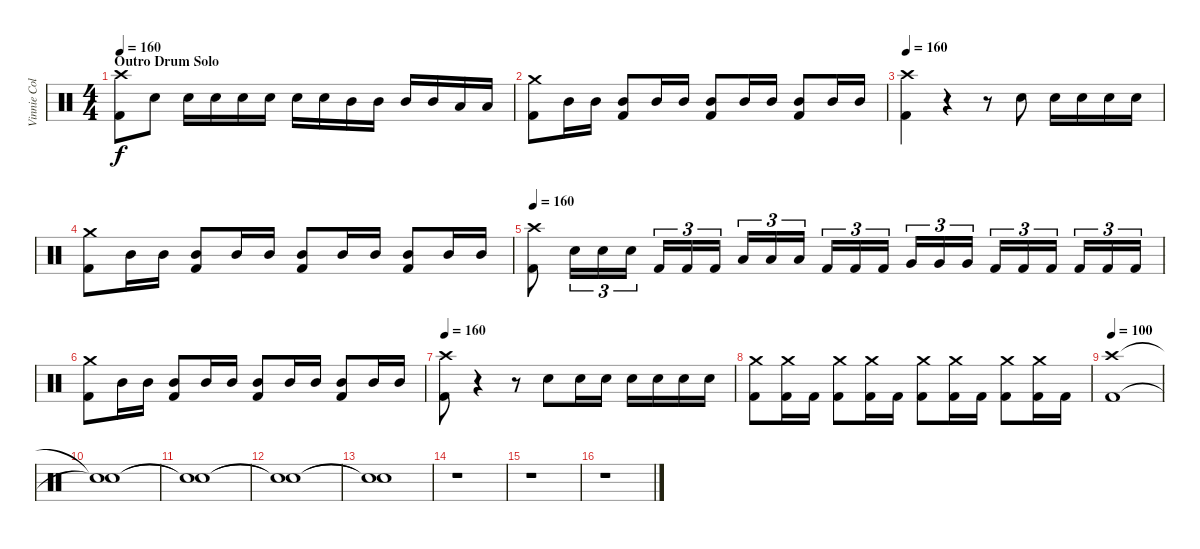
\track ("Vinnie Colaiuta" "Vinnie Col") {instrument percussion}
\staff {score}
\articulation defaults
\ts (4 4)
\section ("" "Outro Drum Solo")
\tempo 160
\clef neutral
\ks c
("Crash high (hit)" "Kick (hit) 2").8{dy f} "Snare (hit) 2"{tr (38 64)}.8 "Snare (hit) 2".16 "Snare (hit) 2".16 "Snare (hit) 2".16 "Snare (hit) 2".16 "Snare (hit) 2".16 "Snare (hit) 2".16 "Mid Tom (hit)".16 "Mid Tom (hit)".16 "Mid Tom (hit)".16 "Mid Tom (hit)".16 "Low Tom (hit)".16 "Low Tom (hit)".16 |
("Crash medium (hit)" "Kick (hit) 2").8 "Mid Tom (hit)".16 "Mid Tom (hit)".16 ("Mid Tom (hit)" "Kick (hit) 2").8 "Mid Tom (hit)".16 "Mid Tom (hit)".16 ("Mid Tom (hit)" "Kick (hit) 2").8 "Mid Tom (hit)".16 "Mid Tom (hit)".16 ("Mid Tom (hit)" "Kick (hit) 2").8 "Mid Tom (hit)".16 "Mid Tom (hit)".16 |
\tempo 160
("Crash high (hit)" "Kick (hit) 2").4 r.4 r.8 "Snare (hit) 2"{tr (38 64)}.8 "Snare (hit) 2".16 "Snare (hit) 2".16 "Snare (hit) 2".16 "Snare (hit) 2".16 |
("Crash medium (hit)" "Kick (hit) 2").8 "Mid Tom (hit)".16 "Mid Tom (hit)".16 ("Mid Tom (hit)" "Kick (hit) 2").8 "Mid Tom (hit)".16 "Mid Tom (hit)".16 ("Mid Tom (hit)" "Kick (hit) 2").8 "Mid Tom (hit)".16 "Mid Tom (hit)".16 ("Mid Tom (hit)" "Kick (hit) 2").8 "Mid Tom (hit)".16 "Mid Tom (hit)".16 |
\tempo 160
("Crash high (hit)" "Kick (hit) 2").8 "Snare (hit) 2".16{tu (3 2)} "Snare (hit) 2".16{tu (3 2)} "Snare (hit) 2".16{tu (3 2)} "Kick (hit) 2".16{tu (3 2)} "Kick (hit) 2".16{tu (3 2)} "Kick (hit) 2".16{tu (3 2)} "Low Tom (hit)".16{tu (3 2)} "Low Tom (hit)".16{tu (3 2)} "Low Tom (hit)".16{tu (3 2)} "Kick (hit) 2".16{tu (3 2)} "Kick (hit) 2".16{tu (3 2)} "Kick (hit) 2".16{tu (3 2)} "Very Low Tom (hit)".16{tu (3 2)} "Very Low Tom (hit)".16{tu (3 2)} "Very Low Tom (hit)".16{tu (3 2)} "Kick (hit) 2".16{tu (3 2)} "Kick (hit) 2".16{tu (3 2)} "Kick (hit) 2".16{tu (3 2)} "Kick (hit) 2".16{tu (3 2)} "Kick (hit) 2".16{tu (3 2)} "Kick (hit) 2".16{tu (3 2)} |
("Crash medium (hit)" "Kick (hit) 2").8 "Mid Tom (hit)".16 "Mid Tom (hit)".16 ("Mid Tom (hit)" "Kick (hit) 2").8 "Mid Tom (hit)".16 "Mid Tom (hit)".16 ("Mid Tom (hit)" "Kick (hit) 2").8 "Mid Tom (hit)".16 "Mid Tom (hit)".16 ("Mid Tom (hit)" "Kick (hit) 2").8 "Mid Tom (hit)".16 "Mid Tom (hit)".16 |
\tempo 160
("Crash high (hit)" "Kick (hit) 2").8 r.4 r.8 "Snare (hit) 2"{tr (38 64)}.8 "Snare (hit) 2".16 "Snare (hit) 2".16 "Snare (hit) 2".16 "Snare (hit) 2".16 "Snare (hit) 2".16 "Snare (hit) 2".16 |
("Crash medium (hit)" "Kick (hit) 2").8 ("Crash medium (hit)" "Kick (hit) 2").16 "Kick (hit) 2".16 ("Crash medium (hit)" "Kick (hit) 2").8 ("Crash medium (hit)" "Kick (hit) 2").16 "Kick (hit) 2".16 ("Crash medium (hit)" "Kick (hit) 2").8 ("Crash medium (hit)" "Kick (hit) 2").16 "Kick (hit) 2".16 ("Crash medium (hit)" "Kick (hit) 2").8 ("Crash medium (hit)" "Kick (hit) 2").16 "Kick (hit) 2".16 |
\tempo 100
("Crash high (hit)" "Kick (hit) 2").1 |
("Snare (hit)"{t} "Snare (hit)"{t}).1 |
("Snare (hit)"{t} "Snare (hit)"{t}).1 |
("Snare (hit)"{t} "Snare (hit)"{t}).1 |
("Snare (hit)"{t} "Snare (hit)"{t}).1 |
r.1 |
r.1 |
r.1
